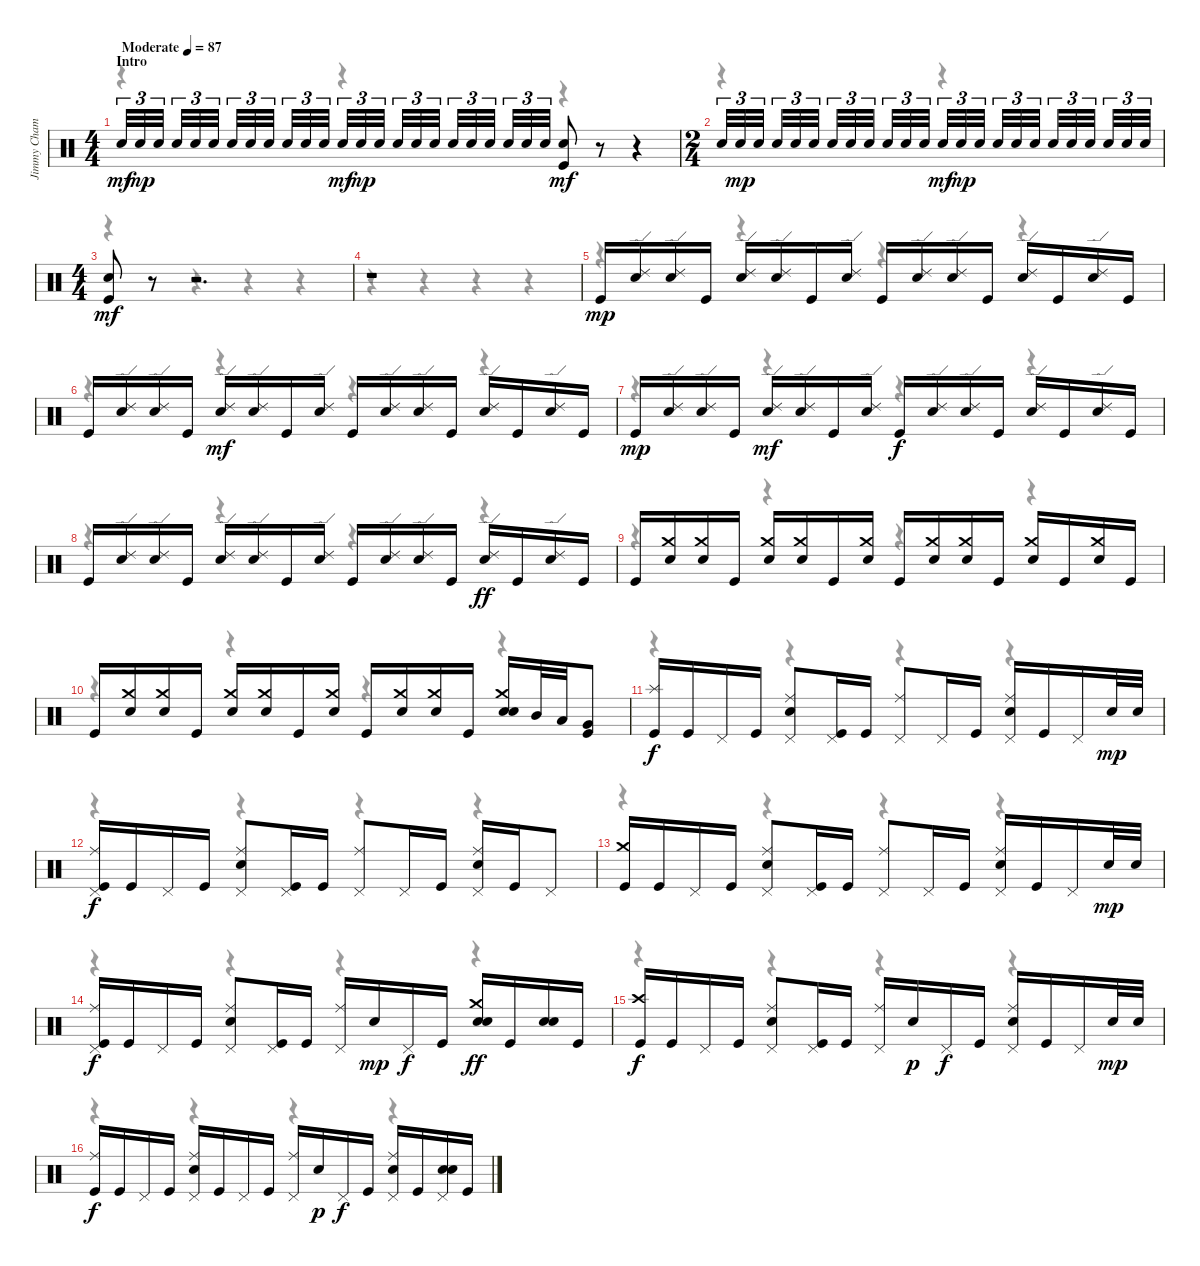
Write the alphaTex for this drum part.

\track ("Jimmy Chamberlin - Drums" "Jimmy Cham") {instrument percussion}
\staff {score}
\articulation defaults
\voice
\ts (4 4)
\section ("" "Intro")
\tempo (87 "Moderate")
\clef neutral
\ks c "Snare (hit) 2".32{tu (3 2) dy mf} "Snare (hit) 2".32{tu (3 2) dy mp} "Snare (hit) 2".32{tu (3 2)} "Snare (hit) 2".32{tu (3 2)} "Snare (hit) 2".32{tu (3 2)} "Snare (hit) 2".32{tu (3 2)} "Snare (hit) 2".32{tu (3 2)} "Snare (hit) 2".32{tu (3 2)} "Snare (hit) 2".32{tu (3 2)} "Snare (hit) 2".32{tu (3 2)} "Snare (hit) 2".32{tu (3 2)} "Snare (hit) 2".32{tu (3 2)} "Snare (hit) 2".32{tu (3 2) dy mf} "Snare (hit) 2".32{tu (3 2) dy mp} "Snare (hit) 2".32{tu (3 2)} "Snare (hit) 2".32{tu (3 2)} "Snare (hit) 2".32{tu (3 2)} "Snare (hit) 2".32{tu (3 2)} "Snare (hit) 2".32{tu (3 2)} "Snare (hit) 2".32{tu (3 2)} "Snare (hit) 2".32{tu (3 2)} "Snare (hit) 2".32{tu (3 2)} "Snare (hit) 2".32{tu (3 2)} "Snare (hit) 2".32{tu (3 2)}
("Snare (hit) 2" "Kick (hit)").8{dy mf} r.8 r.4 |
\ts (2 4)
"Snare (hit) 2".32{tu (3 2)} "Snare (hit) 2".32{tu (3 2) dy mp} "Snare (hit) 2".32{tu (3 2)} "Snare (hit) 2".32{tu (3 2)} "Snare (hit) 2".32{tu (3 2)} "Snare (hit) 2".32{tu (3 2)} "Snare (hit) 2".32{tu (3 2)} "Snare (hit) 2".32{tu (3 2)} "Snare (hit) 2".32{tu (3 2)} "Snare (hit) 2".32{tu (3 2)} "Snare (hit) 2".32{tu (3 2)} "Snare (hit) 2".32{tu (3 2)} "Snare (hit) 2".32{tu (3 2) dy mf} "Snare (hit) 2".32{tu (3 2) dy mp} "Snare (hit) 2".32{tu (3 2)} "Snare (hit) 2".32{tu (3 2)} "Snare (hit) 2".32{tu (3 2)} "Snare (hit) 2".32{tu (3 2)} "Snare (hit) 2".32{tu (3 2)} "Snare (hit) 2".32{tu (3 2)} "Snare (hit) 2".32{tu (3 2)} "Snare (hit) 2".32{tu (3 2)} "Snare (hit) 2".32{tu (3 2)} "Snare (hit) 2".32{tu (3 2)} |
\ts (4 4)
("Snare (hit) 2" "Kick (hit)").8{dy mf} r.8 r.2{d} |
r.1 |
"Kick (hit)".16{dy mp} ("Ride (edge) 2" "Snare (hit) 2").16 ("Ride (edge) 2" "Snare (hit) 2").16 "Kick (hit)".16 ("Ride (edge) 2" "Snare (hit) 2").16 ("Ride (edge) 2" "Snare (hit) 2").16 "Kick (hit)".16 ("Ride (edge) 2" "Snare (hit) 2").16 "Kick (hit)".16 ("Ride (edge) 2" "Snare (hit) 2").16 ("Ride (edge) 2" "Snare (hit) 2").16 "Kick (hit)".16 ("Ride (edge) 2" "Snare (hit) 2").16 "Kick (hit)".16 ("Ride (edge) 2" "Snare (hit) 2").16 "Kick (hit)".16 |
"Kick (hit)".16 ("Ride (edge) 2" "Snare (hit) 2").16 ("Ride (edge) 2" "Snare (hit) 2").16 "Kick (hit)".16 ("Ride (edge) 2" "Snare (hit) 2").16{dy mf} ("Ride (edge) 2" "Snare (hit) 2").16 "Kick (hit)".16 ("Ride (edge) 2" "Snare (hit) 2").16 "Kick (hit)".16 ("Ride (edge) 2" "Snare (hit) 2").16 ("Ride (edge) 2" "Snare (hit) 2").16 "Kick (hit)".16 ("Ride (edge) 2" "Snare (hit) 2").16 "Kick (hit)".16 ("Ride (edge) 2" "Snare (hit) 2").16 "Kick (hit)".16 |
"Kick (hit)".16{dy mp} ("Ride (edge) 2" "Snare (hit) 2").16 ("Ride (edge) 2" "Snare (hit) 2").16 "Kick (hit)".16 ("Ride (edge) 2" "Snare (hit) 2").16{dy mf} ("Ride (edge) 2" "Snare (hit) 2").16 "Kick (hit)".16 ("Ride (edge) 2" "Snare (hit) 2").16 "Kick (hit)".16{dy f} ("Ride (edge) 2" "Snare (hit) 2").16 ("Ride (edge) 2" "Snare (hit) 2").16 "Kick (hit)".16 ("Ride (edge) 2" "Snare (hit) 2").16 "Kick (hit)".16 ("Ride (edge) 2" "Snare (hit) 2").16 "Kick (hit)".16 |
"Kick (hit)".16 ("Ride (edge) 2" "Snare (hit) 2").16 ("Ride (edge) 2" "Snare (hit) 2").16 "Kick (hit)".16 ("Ride (edge) 2" "Snare (hit) 2").16 ("Ride (edge) 2" "Snare (hit) 2").16 "Kick (hit)".16 ("Ride (edge) 2" "Snare (hit) 2").16 "Kick (hit)".16 ("Ride (edge) 2" "Snare (hit) 2").16 ("Ride (edge) 2" "Snare (hit) 2").16 "Kick (hit)".16 ("Ride (edge) 2" "Snare (hit) 2").16{dy ff} "Kick (hit)".16 ("Ride (edge) 2" "Snare (hit) 2").16 "Kick (hit)".16 |
"Kick (hit)".16 ("Crash medium (hit)" "Snare (hit) 2").16 ("Crash medium (hit)" "Snare (hit) 2").16 "Kick (hit)".16 ("Crash medium (hit)" "Snare (hit) 2").16 ("Crash medium (hit)" "Snare (hit) 2").16 "Kick (hit)".16 ("Crash medium (hit)" "Snare (hit) 2").16 "Kick (hit)".16 ("Crash medium (hit)" "Snare (hit) 2").16 ("Crash medium (hit)" "Snare (hit) 2").16 "Kick (hit)".16 ("Crash medium (hit)" "Snare (hit) 2").16 "Kick (hit)".16 ("Crash medium (hit)" "Snare (hit) 2").16 "Kick (hit)".16 |
"Kick (hit)".16 ("Crash medium (hit)" "Snare (hit) 2").16 ("Crash medium (hit)" "Snare (hit) 2").16 "Kick (hit)".16 ("Crash medium (hit)" "Snare (hit) 2").16 ("Crash medium (hit)" "Snare (hit) 2").16 "Kick (hit)".16 ("Crash medium (hit)" "Snare (hit) 2").16 "Kick (hit)".16 ("Crash medium (hit)" "Snare (hit) 2").16 ("Crash medium (hit)" "Snare (hit) 2").16 "Kick (hit)".16 ("Crash medium (hit)" "Snare (hit) 2" "Snare (hit) 2").16 "Mid Tom (hit)".32 "Low Tom (hit)".32 ("Very Low Tom (hit)" "Kick (hit)").8 |
("Splash (hit)" "Kick (hit)").16{dy f} "Kick (hit)".16 "Pedal Hi-Hat (hit)".16 "Kick (hit)".16 ("Ride (middle)" "Pedal Hi-Hat (hit)" "Snare (hit) 2").8 ("Pedal Hi-Hat (hit)" "Kick (hit)").16 "Kick (hit)".16 ("Ride (middle)" "Pedal Hi-Hat (hit)").8 "Pedal Hi-Hat (hit)".16 "Kick (hit)".16 ("Ride (middle)" "Pedal Hi-Hat (hit)" "Snare (hit) 2").16 "Kick (hit)".16 "Pedal Hi-Hat (hit)".16 "Snare (hit) 2".32{dy mp} "Snare (hit) 2".32 |
("Ride (middle)" "Pedal Hi-Hat (hit)" "Kick (hit)").16{dy f} "Kick (hit)".16 "Pedal Hi-Hat (hit)".16 "Kick (hit)".16 ("Ride (middle)" "Pedal Hi-Hat (hit)" "Snare (hit) 2").8 ("Pedal Hi-Hat (hit)" "Kick (hit)").16 "Kick (hit)".16 ("Ride (middle)" "Pedal Hi-Hat (hit)").8 "Pedal Hi-Hat (hit)".16 "Kick (hit)".16 ("Ride (middle)" "Pedal Hi-Hat (hit)" "Snare (hit) 2").16 "Kick (hit)".16 "Pedal Hi-Hat (hit)".8 |
("Crash medium (hit)" "Kick (hit)").16 "Kick (hit)".16 "Pedal Hi-Hat (hit)".16 "Kick (hit)".16 ("Ride (middle)" "Pedal Hi-Hat (hit)" "Snare (hit) 2").8 ("Pedal Hi-Hat (hit)" "Kick (hit)").16 "Kick (hit)".16 ("Ride (middle)" "Pedal Hi-Hat (hit)").8 "Pedal Hi-Hat (hit)".16 "Kick (hit)".16 ("Ride (middle)" "Pedal Hi-Hat (hit)" "Snare (hit) 2").16 "Kick (hit)".16 "Pedal Hi-Hat (hit)".16 "Snare (hit) 2".32{dy mp} "Snare (hit) 2".32 |
("Ride (middle)" "Pedal Hi-Hat (hit)" "Kick (hit)").16{dy f} "Kick (hit)".16 "Pedal Hi-Hat (hit)".16 "Kick (hit)".16 ("Ride (middle)" "Pedal Hi-Hat (hit)" "Snare (hit) 2").8 ("Pedal Hi-Hat (hit)" "Kick (hit)").16 "Kick (hit)".16 ("Ride (middle)" "Pedal Hi-Hat (hit)").16 "Snare (hit) 2".16{dy mp} "Pedal Hi-Hat (hit)".16{dy f} "Kick (hit)".16 ("Crash medium (hit)" "Snare (hit) 2" "Snare (hit) 2").16{dy ff} "Kick (hit)".16 ("Snare (hit) 2" "Snare (hit) 2").16 "Kick (hit)".16 |
("Crash high (hit)" "Kick (hit)").16{dy f} "Kick (hit)".16 "Pedal Hi-Hat (hit)".16 "Kick (hit)".16 ("Ride (middle)" "Pedal Hi-Hat (hit)" "Snare (hit) 2").8 ("Pedal Hi-Hat (hit)" "Kick (hit)").16 "Kick (hit)".16 ("Ride (middle)" "Pedal Hi-Hat (hit)").16 "Snare (hit) 2".16{dy p} "Pedal Hi-Hat (hit)".16{dy f} "Kick (hit)".16 ("Ride (middle)" "Pedal Hi-Hat (hit)" "Snare (hit) 2").16 "Kick (hit)".16 "Pedal Hi-Hat (hit)".16 "Snare (hit) 2".32{dy mp} "Snare (hit) 2".32 |
("Ride (middle)" "Kick (hit)").16{dy f} "Kick (hit)".16 "Pedal Hi-Hat (hit)".16 "Kick (hit)".16 ("Ride (middle)" "Pedal Hi-Hat (hit)" "Snare (hit) 2").16 "Kick (hit)".16 "Pedal Hi-Hat (hit)".16 "Kick (hit)".16 ("Ride (middle)" "Pedal Hi-Hat (hit)").16 "Snare (hit) 2".16{dy p} "Pedal Hi-Hat (hit)".16{dy f} "Kick (hit)".16 ("Ride (middle)" "Pedal Hi-Hat (hit)" "Snare (hit) 2").16 "Kick (hit)".16 ("Pedal Hi-Hat (hit)" "Snare (hit) 2" "Snare (hit) 2").16 "Kick (hit)".16
\voice
\clef neutral
\ottava regular
\simile none
\ks c
r.4{dy f} r.4 r.4 r.4 |
r.4 r.4 |
r.4 r.4 r.4 r.4 |
r.4 r.4 r.4 r.4 |
r.4 r.4 r.4 r.4 |
r.4 r.4 r.4 r.4 |
r.4 r.4 r.4 r.4 |
r.4 r.4 r.4 r.4 |
r.4 r.4 r.4 r.4 |
r.4 r.4 r.4 r.4 |
r.4 r.4 r.4 r.4 |
r.4 r.4 r.4 r.4 |
r.4 r.4 r.4 r.4 |
r.4 r.4 r.4 r.4 |
r.4 r.4 r.4 r.4 |
r.4 r.4 r.4 r.4
